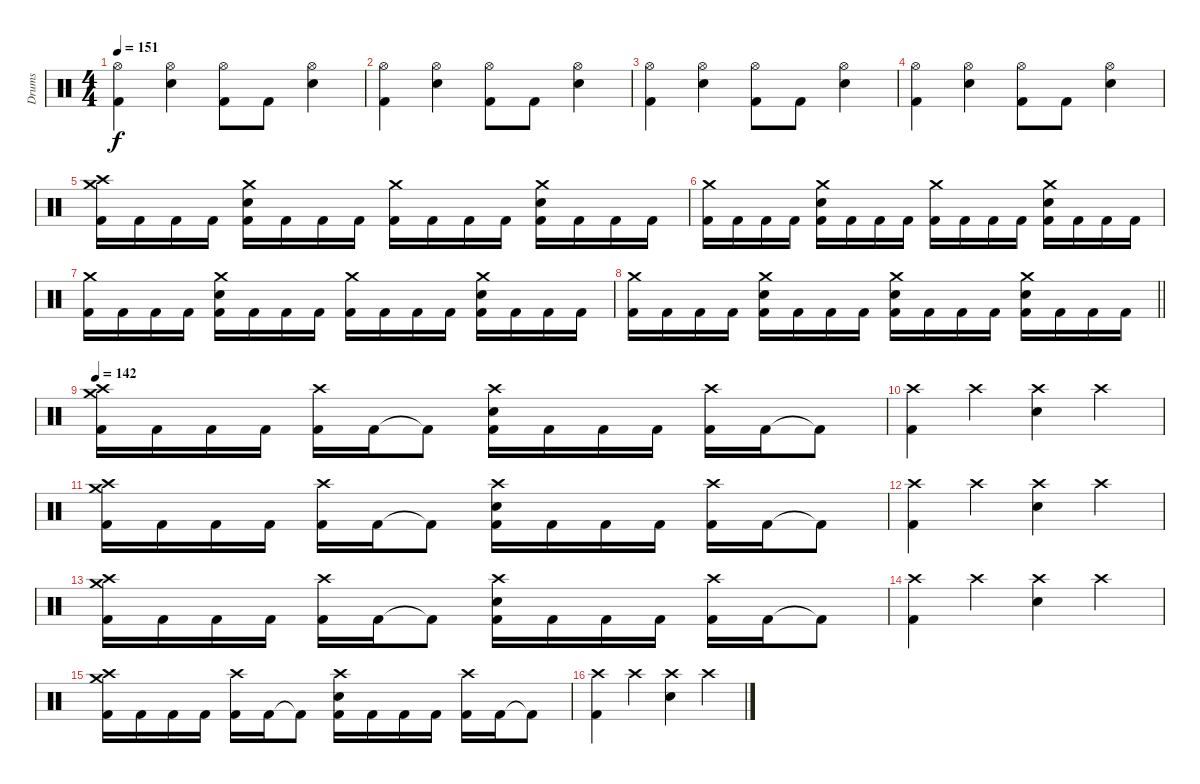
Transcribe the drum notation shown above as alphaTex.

\track ("Drums" "Drums") {instrument percussion}
\staff {score}
\articulation defaults
\ts (4 4)
\tempo 151
\clef neutral
\ks c
("Hi-Hat (open)" "Kick (hit) 2").4{dy f} ("Hi-Hat (open)" "Electric Snare (hit)").4 ("Hi-Hat (open)" "Kick (hit) 2").8 "Kick (hit) 2".8 ("Hi-Hat (open)" "Electric Snare (hit)").4 |
("Hi-Hat (open)" "Kick (hit) 2").4 ("Hi-Hat (open)" "Electric Snare (hit)").4 ("Hi-Hat (open)" "Kick (hit) 2").8 "Kick (hit) 2".8 ("Hi-Hat (open)" "Electric Snare (hit)").4 |
("Hi-Hat (open)" "Kick (hit) 2").4 ("Hi-Hat (open)" "Electric Snare (hit)").4 ("Hi-Hat (open)" "Kick (hit) 2").8 "Kick (hit) 2".8 ("Hi-Hat (open)" "Electric Snare (hit)").4 |
("Hi-Hat (open)" "Kick (hit) 2").4 ("Hi-Hat (open)" "Electric Snare (hit)").4 ("Hi-Hat (open)" "Kick (hit) 2").8 "Kick (hit) 2".8 ("Hi-Hat (open)" "Electric Snare (hit)").4 |
("Crash medium (hit)" "Crash high (hit)" "Kick (hit) 2").16 "Kick (hit) 2".16 "Kick (hit) 2".16 "Kick (hit) 2".16 ("Crash medium (hit)" "Electric Snare (hit)" "Kick (hit) 2").16 "Kick (hit) 2".16 "Kick (hit) 2".16 "Kick (hit) 2".16 ("Crash medium (hit)" "Kick (hit) 2").16 "Kick (hit) 2".16 "Kick (hit) 2".16 "Kick (hit) 2".16 ("Crash medium (hit)" "Electric Snare (hit)" "Kick (hit) 2").16 "Kick (hit) 2".16 "Kick (hit) 2".16 "Kick (hit) 2".16 |
("Crash medium (hit)" "Kick (hit) 2").16 "Kick (hit) 2".16 "Kick (hit) 2".16 "Kick (hit) 2".16 ("Crash medium (hit)" "Electric Snare (hit)" "Kick (hit) 2").16 "Kick (hit) 2".16 "Kick (hit) 2".16 "Kick (hit) 2".16 ("Crash medium (hit)" "Kick (hit) 2").16 "Kick (hit) 2".16 "Kick (hit) 2".16 "Kick (hit) 2".16 ("Crash medium (hit)" "Electric Snare (hit)" "Kick (hit) 2").16 "Kick (hit) 2".16 "Kick (hit) 2".16 "Kick (hit) 2".16 |
("Crash medium (hit)" "Kick (hit) 2").16 "Kick (hit) 2".16 "Kick (hit) 2".16 "Kick (hit) 2".16 ("Crash medium (hit)" "Electric Snare (hit)" "Kick (hit) 2").16 "Kick (hit) 2".16 "Kick (hit) 2".16 "Kick (hit) 2".16 ("Crash medium (hit)" "Kick (hit) 2").16 "Kick (hit) 2".16 "Kick (hit) 2".16 "Kick (hit) 2".16 ("Crash medium (hit)" "Electric Snare (hit)" "Kick (hit) 2").16 "Kick (hit) 2".16 "Kick (hit) 2".16 "Kick (hit) 2".16 |
\barLineRight lightlight
("Crash medium (hit)" "Kick (hit) 2").16 "Kick (hit) 2".16 "Kick (hit) 2".16 "Kick (hit) 2".16 ("Crash medium (hit)" "Electric Snare (hit)" "Kick (hit) 2").16 "Kick (hit) 2".16 "Kick (hit) 2".16 "Kick (hit) 2".16 ("Crash medium (hit)" "Electric Snare (hit)" "Kick (hit) 2").16 "Kick (hit) 2".16 "Kick (hit) 2".16 "Kick (hit) 2".16 ("Crash medium (hit)" "Electric Snare (hit)" "Kick (hit) 2").16 "Kick (hit) 2".16 "Kick (hit) 2".16 "Kick (hit) 2".16 |
\tempo 142
("Crash medium (hit)" "Crash high (hit)" "Kick (hit) 2").16 "Kick (hit) 2".16 "Kick (hit) 2".16 "Kick (hit) 2".16 ("Crash high (hit)" "Kick (hit) 2").16 "Kick (hit) 2".16 "Kick (hit) 2"{t}.8 ("Crash high (hit)" "Electric Snare (hit)" "Kick (hit) 2").16 "Kick (hit) 2".16 "Kick (hit) 2".16 "Kick (hit) 2".16 ("Crash high (hit)" "Kick (hit) 2").16 "Kick (hit) 2".16 "Kick (hit) 2"{t}.8 |
("Crash high (hit)" "Kick (hit) 2").4 "Crash high (hit)".4 ("Crash high (hit)" "Electric Snare (hit)").4 "Crash high (hit)".4 |
("Crash medium (hit)" "Crash high (hit)" "Kick (hit) 2").16 "Kick (hit) 2".16 "Kick (hit) 2".16 "Kick (hit) 2".16 ("Crash high (hit)" "Kick (hit) 2").16 "Kick (hit) 2".16 "Kick (hit) 2"{t}.8 ("Crash high (hit)" "Electric Snare (hit)" "Kick (hit) 2").16 "Kick (hit) 2".16 "Kick (hit) 2".16 "Kick (hit) 2".16 ("Crash high (hit)" "Kick (hit) 2").16 "Kick (hit) 2".16 "Kick (hit) 2"{t}.8 |
("Crash high (hit)" "Kick (hit) 2").4 "Crash high (hit)".4 ("Crash high (hit)" "Electric Snare (hit)").4 "Crash high (hit)".4 |
("Crash medium (hit)" "Crash high (hit)" "Kick (hit) 2").16 "Kick (hit) 2".16 "Kick (hit) 2".16 "Kick (hit) 2".16 ("Crash high (hit)" "Kick (hit) 2").16 "Kick (hit) 2".16 "Kick (hit) 2"{t}.8 ("Crash high (hit)" "Electric Snare (hit)" "Kick (hit) 2").16 "Kick (hit) 2".16 "Kick (hit) 2".16 "Kick (hit) 2".16 ("Crash high (hit)" "Kick (hit) 2").16 "Kick (hit) 2".16 "Kick (hit) 2"{t}.8 |
("Crash high (hit)" "Kick (hit) 2").4 "Crash high (hit)".4 ("Crash high (hit)" "Electric Snare (hit)").4 "Crash high (hit)".4 |
("Crash medium (hit)" "Crash high (hit)" "Kick (hit) 2").16 "Kick (hit) 2".16 "Kick (hit) 2".16 "Kick (hit) 2".16 ("Crash high (hit)" "Kick (hit) 2").16 "Kick (hit) 2".16 "Kick (hit) 2"{t}.8 ("Crash high (hit)" "Electric Snare (hit)" "Kick (hit) 2").16 "Kick (hit) 2".16 "Kick (hit) 2".16 "Kick (hit) 2".16 ("Crash high (hit)" "Kick (hit) 2").16 "Kick (hit) 2".16 "Kick (hit) 2"{t}.8 |
("Crash high (hit)" "Kick (hit) 2").4 "Crash high (hit)".4 ("Crash high (hit)" "Electric Snare (hit)").4 "Crash high (hit)".4
